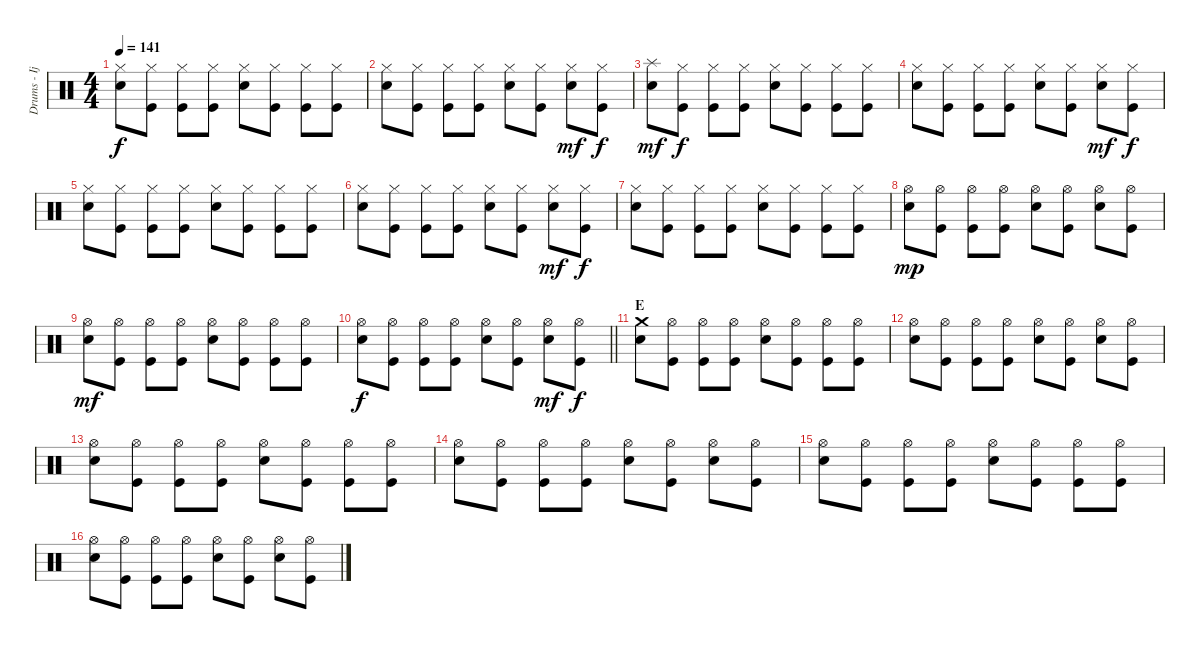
\track ("Drums - Ijichi" "Drums - Ij") {instrument percussion}
\staff {score}
\articulation defaults
\ts (4 4)
\tempo 141
\clef neutral
\ks c
("Hi-Hat (closed)" "Electric Snare (hit)").8{dy f} ("Hi-Hat (closed)" "Kick (hit)").8 ("Hi-Hat (closed)" "Kick (hit)").8 ("Hi-Hat (closed)" "Kick (hit)").8 ("Hi-Hat (closed)" "Electric Snare (hit)").8 ("Hi-Hat (closed)" "Kick (hit)").8 ("Hi-Hat (closed)" "Kick (hit)").8 ("Hi-Hat (closed)" "Kick (hit)").8 |
("Hi-Hat (closed)" "Electric Snare (hit)").8 ("Hi-Hat (closed)" "Kick (hit)").8 ("Hi-Hat (closed)" "Kick (hit)").8 ("Hi-Hat (closed)" "Kick (hit)").8 ("Hi-Hat (closed)" "Electric Snare (hit)").8 ("Hi-Hat (closed)" "Kick (hit)").8 ("Hi-Hat (closed)" "Electric Snare (hit)").8{dy mf} ("Hi-Hat (closed)" "Kick (hit)").8{dy f} |
("Splash (hit)" "Electric Snare (hit)").8{dy mf} ("Hi-Hat (closed)" "Kick (hit)").8{dy f} ("Hi-Hat (closed)" "Kick (hit)").8 ("Hi-Hat (closed)" "Kick (hit)").8 ("Hi-Hat (closed)" "Electric Snare (hit)").8 ("Hi-Hat (closed)" "Kick (hit)").8 ("Hi-Hat (closed)" "Kick (hit)").8 ("Hi-Hat (closed)" "Kick (hit)").8 |
("Hi-Hat (closed)" "Electric Snare (hit)").8 ("Hi-Hat (closed)" "Kick (hit)").8 ("Hi-Hat (closed)" "Kick (hit)").8 ("Hi-Hat (closed)" "Kick (hit)").8 ("Hi-Hat (closed)" "Electric Snare (hit)").8 ("Hi-Hat (closed)" "Kick (hit)").8 ("Hi-Hat (closed)" "Electric Snare (hit)").8{dy mf} ("Hi-Hat (closed)" "Kick (hit)").8{dy f} |
("Hi-Hat (closed)" "Electric Snare (hit)").8 ("Hi-Hat (closed)" "Kick (hit)").8 ("Hi-Hat (closed)" "Kick (hit)").8 ("Hi-Hat (closed)" "Kick (hit)").8 ("Hi-Hat (closed)" "Electric Snare (hit)").8 ("Hi-Hat (closed)" "Kick (hit)").8 ("Hi-Hat (closed)" "Kick (hit)").8 ("Hi-Hat (closed)" "Kick (hit)").8 |
("Hi-Hat (closed)" "Electric Snare (hit)").8 ("Hi-Hat (closed)" "Kick (hit)").8 ("Hi-Hat (closed)" "Kick (hit)").8 ("Hi-Hat (closed)" "Kick (hit)").8 ("Hi-Hat (closed)" "Electric Snare (hit)").8 ("Hi-Hat (closed)" "Kick (hit)").8 ("Hi-Hat (closed)" "Electric Snare (hit)").8{dy mf} ("Hi-Hat (closed)" "Kick (hit)").8{dy f} |
("Hi-Hat (closed)" "Electric Snare (hit)").8 ("Hi-Hat (closed)" "Kick (hit)").8 ("Hi-Hat (closed)" "Kick (hit)").8 ("Hi-Hat (closed)" "Kick (hit)").8 ("Hi-Hat (closed)" "Electric Snare (hit)").8 ("Hi-Hat (closed)" "Kick (hit)").8 ("Hi-Hat (closed)" "Kick (hit)").8 ("Hi-Hat (closed)" "Kick (hit)").8 |
("Hi-Hat (open)" "Electric Snare (hit)").8{dy mp} ("Hi-Hat (open)" "Kick (hit)").8 ("Hi-Hat (open)" "Kick (hit)").8 ("Hi-Hat (open)" "Kick (hit)").8 ("Hi-Hat (open)" "Electric Snare (hit)").8 ("Hi-Hat (open)" "Kick (hit)").8 ("Hi-Hat (open)" "Electric Snare (hit)").8 ("Hi-Hat (open)" "Kick (hit)").8 |
("Hi-Hat (open)" "Electric Snare (hit)").8{dy mf} ("Hi-Hat (open)" "Kick (hit)").8 ("Hi-Hat (open)" "Kick (hit)").8 ("Hi-Hat (open)" "Kick (hit)").8 ("Hi-Hat (open)" "Electric Snare (hit)").8 ("Hi-Hat (open)" "Kick (hit)").8 ("Hi-Hat (open)" "Kick (hit)").8 ("Hi-Hat (open)" "Kick (hit)").8 |
\barLineRight lightlight
("Hi-Hat (open)" "Electric Snare (hit)").8{dy f} ("Hi-Hat (open)" "Kick (hit)").8 ("Hi-Hat (open)" "Kick (hit)").8 ("Hi-Hat (open)" "Kick (hit)").8 ("Hi-Hat (open)" "Electric Snare (hit)").8 ("Hi-Hat (open)" "Kick (hit)").8 ("Hi-Hat (open)" "Electric Snare (hit)").8{dy mf} ("Hi-Hat (open)" "Kick (hit)").8{dy f} |
\section ("" "E")
("Crash medium (hit)" "Electric Snare (hit)").8 ("Hi-Hat (open)" "Kick (hit)").8 ("Hi-Hat (open)" "Kick (hit)").8 ("Hi-Hat (open)" "Kick (hit)").8 ("Hi-Hat (open)" "Electric Snare (hit)").8 ("Hi-Hat (open)" "Kick (hit)").8 ("Hi-Hat (open)" "Kick (hit)").8 ("Hi-Hat (open)" "Kick (hit)").8 |
("Hi-Hat (open)" "Electric Snare (hit)").8 ("Hi-Hat (open)" "Kick (hit)").8 ("Hi-Hat (open)" "Kick (hit)").8 ("Hi-Hat (open)" "Kick (hit)").8 ("Hi-Hat (open)" "Electric Snare (hit)").8 ("Hi-Hat (open)" "Kick (hit)").8 ("Hi-Hat (open)" "Electric Snare (hit)").8 ("Hi-Hat (open)" "Kick (hit)").8 |
("Hi-Hat (open)" "Electric Snare (hit)").8 ("Hi-Hat (open)" "Kick (hit)").8 ("Hi-Hat (open)" "Kick (hit)").8 ("Hi-Hat (open)" "Kick (hit)").8 ("Hi-Hat (open)" "Electric Snare (hit)").8 ("Hi-Hat (open)" "Kick (hit)").8 ("Hi-Hat (open)" "Kick (hit)").8 ("Hi-Hat (open)" "Kick (hit)").8 |
("Hi-Hat (open)" "Electric Snare (hit)").8 ("Hi-Hat (open)" "Kick (hit)").8 ("Hi-Hat (open)" "Kick (hit)").8 ("Hi-Hat (open)" "Kick (hit)").8 ("Hi-Hat (open)" "Electric Snare (hit)").8 ("Hi-Hat (open)" "Kick (hit)").8 ("Hi-Hat (open)" "Electric Snare (hit)").8 ("Hi-Hat (open)" "Kick (hit)").8 |
("Hi-Hat (open)" "Electric Snare (hit)").8 ("Hi-Hat (open)" "Kick (hit)").8 ("Hi-Hat (open)" "Kick (hit)").8 ("Hi-Hat (open)" "Kick (hit)").8 ("Hi-Hat (open)" "Electric Snare (hit)").8 ("Hi-Hat (open)" "Kick (hit)").8 ("Hi-Hat (open)" "Kick (hit)").8 ("Hi-Hat (open)" "Kick (hit)").8 |
("Hi-Hat (open)" "Electric Snare (hit)").8 ("Hi-Hat (open)" "Kick (hit)").8 ("Hi-Hat (open)" "Kick (hit)").8 ("Hi-Hat (open)" "Kick (hit)").8 ("Hi-Hat (open)" "Electric Snare (hit)").8 ("Hi-Hat (open)" "Kick (hit)").8 ("Hi-Hat (open)" "Electric Snare (hit)").8 ("Hi-Hat (open)" "Kick (hit)").8
